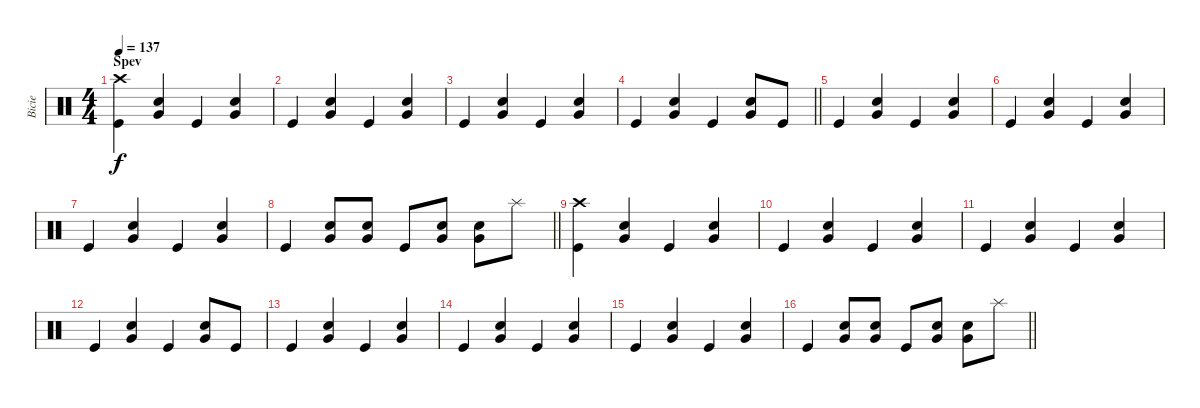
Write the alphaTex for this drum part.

\track ("Bicie" "Bicie") {instrument percussion}
\staff {score}
\articulation defaults
\ts (4 4)
\section ("" "Spev")
\tempo 137
\clef neutral
\ks c
("Crash high (hit)" "Kick (hit)").4{dy f} ("Very Low Tom (hit)" "Snare (hit) 2").4 "Kick (hit)".4 ("Very Low Tom (hit)" "Snare (hit) 2").4 |
"Kick (hit)".4 ("Very Low Tom (hit)" "Snare (hit) 2").4 "Kick (hit)".4 ("Very Low Tom (hit)" "Snare (hit) 2").4 |
"Kick (hit)".4 ("Very Low Tom (hit)" "Snare (hit) 2").4 "Kick (hit)".4 ("Very Low Tom (hit)" "Snare (hit) 2").4 |
\barLineRight lightlight "Kick (hit)".4
("Very Low Tom (hit)" "Snare (hit) 2").4 "Kick (hit)".4 ("Very Low Tom (hit)" "Snare (hit) 2").8 "Kick (hit)".8 |
"Kick (hit)".4 ("Very Low Tom (hit)" "Snare (hit) 2").4 "Kick (hit)".4 ("Very Low Tom (hit)" "Snare (hit) 2").4 |
"Kick (hit)".4 ("Very Low Tom (hit)" "Snare (hit) 2").4 "Kick (hit)".4 ("Very Low Tom (hit)" "Snare (hit) 2").4 |
"Kick (hit)".4 ("Very Low Tom (hit)" "Snare (hit) 2").4 "Kick (hit)".4 ("Very Low Tom (hit)" "Snare (hit) 2").4 |
\barLineRight lightlight "Kick (hit)".4
("Very Low Tom (hit)" "Snare (hit) 2").8 ("Very Low Tom (hit)" "Snare (hit) 2").8 "Kick (hit)".8 ("Very Low Tom (hit)" "Snare (hit) 2").8 ("Very Low Tom (hit)" "Snare (hit) 2").8 "Splash (hit)".8 |
("Crash high (hit)" "Kick (hit)").4 ("Very Low Tom (hit)" "Snare (hit) 2").4 "Kick (hit)".4 ("Very Low Tom (hit)" "Snare (hit) 2").4 |
"Kick (hit)".4 ("Very Low Tom (hit)" "Snare (hit) 2").4 "Kick (hit)".4 ("Very Low Tom (hit)" "Snare (hit) 2").4 |
"Kick (hit)".4 ("Very Low Tom (hit)" "Snare (hit) 2").4 "Kick (hit)".4 ("Very Low Tom (hit)" "Snare (hit) 2").4 |
"Kick (hit)".4 ("Very Low Tom (hit)" "Snare (hit) 2").4 "Kick (hit)".4 ("Very Low Tom (hit)" "Snare (hit) 2").8 "Kick (hit)".8 |
"Kick (hit)".4 ("Very Low Tom (hit)" "Snare (hit) 2").4 "Kick (hit)".4 ("Very Low Tom (hit)" "Snare (hit) 2").4 |
"Kick (hit)".4 ("Very Low Tom (hit)" "Snare (hit) 2").4 "Kick (hit)".4 ("Very Low Tom (hit)" "Snare (hit) 2").4 |
"Kick (hit)".4 ("Very Low Tom (hit)" "Snare (hit) 2").4 "Kick (hit)".4 ("Very Low Tom (hit)" "Snare (hit) 2").4 |
\barLineRight lightlight "Kick (hit)".4
("Very Low Tom (hit)" "Snare (hit) 2").8 ("Very Low Tom (hit)" "Snare (hit) 2").8 "Kick (hit)".8 ("Very Low Tom (hit)" "Snare (hit) 2").8 ("Very Low Tom (hit)" "Snare (hit) 2").8 "Splash (hit)".8
